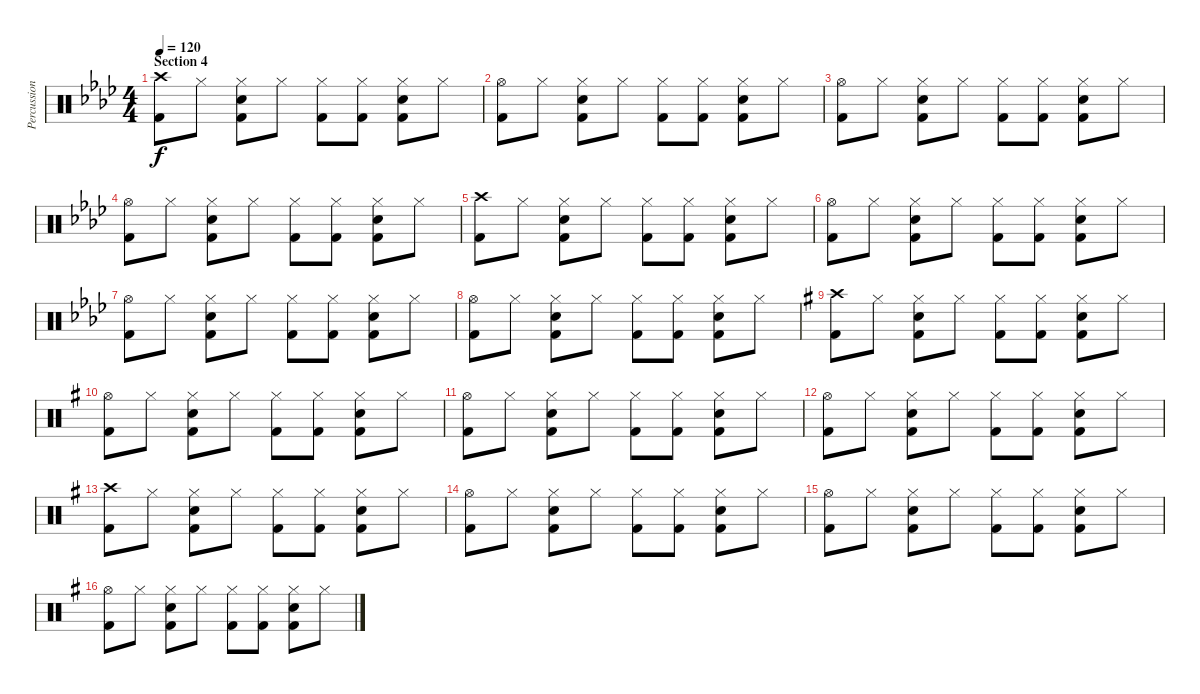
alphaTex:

\track ("Percussion" "Percussion") {instrument percussion}
\staff {score}
\articulation defaults
\ts (4 4)
\section ("" "Section 4")
\tempo 120
\clef neutral
\ks ab
("Kick (hit) 2" "Crash high (hit)").8{dy f} "Hi-Hat (closed)".8 ("Kick (hit) 2" "Electric Snare (hit)" "Hi-Hat (closed)").8 "Hi-Hat (closed)".8 ("Kick (hit) 2" "Hi-Hat (closed)").8 ("Kick (hit) 2" "Hi-Hat (closed)").8 ("Kick (hit) 2" "Electric Snare (hit)" "Hi-Hat (closed)").8 "Hi-Hat (closed)".8 |
("Kick (hit) 2" "Hi-Hat (open)").8 "Hi-Hat (closed)".8 ("Kick (hit) 2" "Electric Snare (hit)" "Hi-Hat (closed)").8 "Hi-Hat (closed)".8 ("Kick (hit) 2" "Hi-Hat (closed)").8 ("Kick (hit) 2" "Hi-Hat (closed)").8 ("Kick (hit) 2" "Electric Snare (hit)" "Hi-Hat (closed)").8 "Hi-Hat (closed)".8 |
("Kick (hit) 2" "Hi-Hat (open)").8 "Hi-Hat (closed)".8 ("Kick (hit) 2" "Electric Snare (hit)" "Hi-Hat (closed)").8 "Hi-Hat (closed)".8 ("Kick (hit) 2" "Hi-Hat (closed)").8 ("Kick (hit) 2" "Hi-Hat (closed)").8 ("Kick (hit) 2" "Electric Snare (hit)" "Hi-Hat (closed)").8 "Hi-Hat (closed)".8 |
("Kick (hit) 2" "Hi-Hat (open)").8 "Hi-Hat (closed)".8 ("Kick (hit) 2" "Electric Snare (hit)" "Hi-Hat (closed)").8 "Hi-Hat (closed)".8 ("Kick (hit) 2" "Hi-Hat (closed)").8 ("Kick (hit) 2" "Hi-Hat (closed)").8 ("Kick (hit) 2" "Electric Snare (hit)" "Hi-Hat (closed)").8 "Hi-Hat (closed)".8 |
("Kick (hit) 2" "Crash high (hit)").8 "Hi-Hat (closed)".8 ("Kick (hit) 2" "Electric Snare (hit)" "Hi-Hat (closed)").8 "Hi-Hat (closed)".8 ("Kick (hit) 2" "Hi-Hat (closed)").8 ("Kick (hit) 2" "Hi-Hat (closed)").8 ("Kick (hit) 2" "Electric Snare (hit)" "Hi-Hat (closed)").8 "Hi-Hat (closed)".8 |
("Kick (hit) 2" "Hi-Hat (open)").8 "Hi-Hat (closed)".8 ("Kick (hit) 2" "Electric Snare (hit)" "Hi-Hat (closed)").8 "Hi-Hat (closed)".8 ("Kick (hit) 2" "Hi-Hat (closed)").8 ("Kick (hit) 2" "Hi-Hat (closed)").8 ("Kick (hit) 2" "Electric Snare (hit)" "Hi-Hat (closed)").8 "Hi-Hat (closed)".8 |
("Kick (hit) 2" "Hi-Hat (open)").8 "Hi-Hat (closed)".8 ("Kick (hit) 2" "Electric Snare (hit)" "Hi-Hat (closed)").8 "Hi-Hat (closed)".8 ("Kick (hit) 2" "Hi-Hat (closed)").8 ("Kick (hit) 2" "Hi-Hat (closed)").8 ("Kick (hit) 2" "Electric Snare (hit)" "Hi-Hat (closed)").8 "Hi-Hat (closed)".8 |
("Kick (hit) 2" "Hi-Hat (open)").8 "Hi-Hat (closed)".8 ("Kick (hit) 2" "Electric Snare (hit)" "Hi-Hat (closed)").8 "Hi-Hat (closed)".8 ("Kick (hit) 2" "Hi-Hat (closed)").8 ("Kick (hit) 2" "Hi-Hat (closed)").8 ("Kick (hit) 2" "Electric Snare (hit)" "Hi-Hat (closed)").8 "Hi-Hat (closed)".8 |
\ks g
("Kick (hit) 2" "Crash high (hit)").8 "Hi-Hat (closed)".8 ("Kick (hit) 2" "Electric Snare (hit)" "Hi-Hat (closed)").8 "Hi-Hat (closed)".8 ("Kick (hit) 2" "Hi-Hat (closed)").8 ("Kick (hit) 2" "Hi-Hat (closed)").8 ("Kick (hit) 2" "Electric Snare (hit)" "Hi-Hat (closed)").8 "Hi-Hat (closed)".8 |
("Kick (hit) 2" "Hi-Hat (open)").8 "Hi-Hat (closed)".8 ("Kick (hit) 2" "Electric Snare (hit)" "Hi-Hat (closed)").8 "Hi-Hat (closed)".8 ("Kick (hit) 2" "Hi-Hat (closed)").8 ("Kick (hit) 2" "Hi-Hat (closed)").8 ("Kick (hit) 2" "Electric Snare (hit)" "Hi-Hat (closed)").8 "Hi-Hat (closed)".8 |
("Kick (hit) 2" "Hi-Hat (open)").8 "Hi-Hat (closed)".8 ("Kick (hit) 2" "Electric Snare (hit)" "Hi-Hat (closed)").8 "Hi-Hat (closed)".8 ("Kick (hit) 2" "Hi-Hat (closed)").8 ("Kick (hit) 2" "Hi-Hat (closed)").8 ("Kick (hit) 2" "Electric Snare (hit)" "Hi-Hat (closed)").8 "Hi-Hat (closed)".8 |
("Kick (hit) 2" "Hi-Hat (open)").8 "Hi-Hat (closed)".8 ("Kick (hit) 2" "Electric Snare (hit)" "Hi-Hat (closed)").8 "Hi-Hat (closed)".8 ("Kick (hit) 2" "Hi-Hat (closed)").8 ("Kick (hit) 2" "Hi-Hat (closed)").8 ("Kick (hit) 2" "Electric Snare (hit)" "Hi-Hat (closed)").8 "Hi-Hat (closed)".8 |
("Kick (hit) 2" "Crash high (hit)").8 "Hi-Hat (closed)".8 ("Kick (hit) 2" "Electric Snare (hit)" "Hi-Hat (closed)").8 "Hi-Hat (closed)".8 ("Kick (hit) 2" "Hi-Hat (closed)").8 ("Kick (hit) 2" "Hi-Hat (closed)").8 ("Kick (hit) 2" "Electric Snare (hit)" "Hi-Hat (closed)").8 "Hi-Hat (closed)".8 |
("Kick (hit) 2" "Hi-Hat (open)").8 "Hi-Hat (closed)".8 ("Kick (hit) 2" "Electric Snare (hit)" "Hi-Hat (closed)").8 "Hi-Hat (closed)".8 ("Kick (hit) 2" "Hi-Hat (closed)").8 ("Kick (hit) 2" "Hi-Hat (closed)").8 ("Kick (hit) 2" "Electric Snare (hit)" "Hi-Hat (closed)").8 "Hi-Hat (closed)".8 |
("Kick (hit) 2" "Hi-Hat (open)").8 "Hi-Hat (closed)".8 ("Kick (hit) 2" "Electric Snare (hit)" "Hi-Hat (closed)").8 "Hi-Hat (closed)".8 ("Kick (hit) 2" "Hi-Hat (closed)").8 ("Kick (hit) 2" "Hi-Hat (closed)").8 ("Kick (hit) 2" "Electric Snare (hit)" "Hi-Hat (closed)").8 "Hi-Hat (closed)".8 |
("Kick (hit) 2" "Hi-Hat (open)").8 "Hi-Hat (closed)".8 ("Kick (hit) 2" "Electric Snare (hit)" "Hi-Hat (closed)").8 "Hi-Hat (closed)".8 ("Kick (hit) 2" "Hi-Hat (closed)").8 ("Kick (hit) 2" "Hi-Hat (closed)").8 ("Kick (hit) 2" "Electric Snare (hit)" "Hi-Hat (closed)").8 "Hi-Hat (closed)".8
